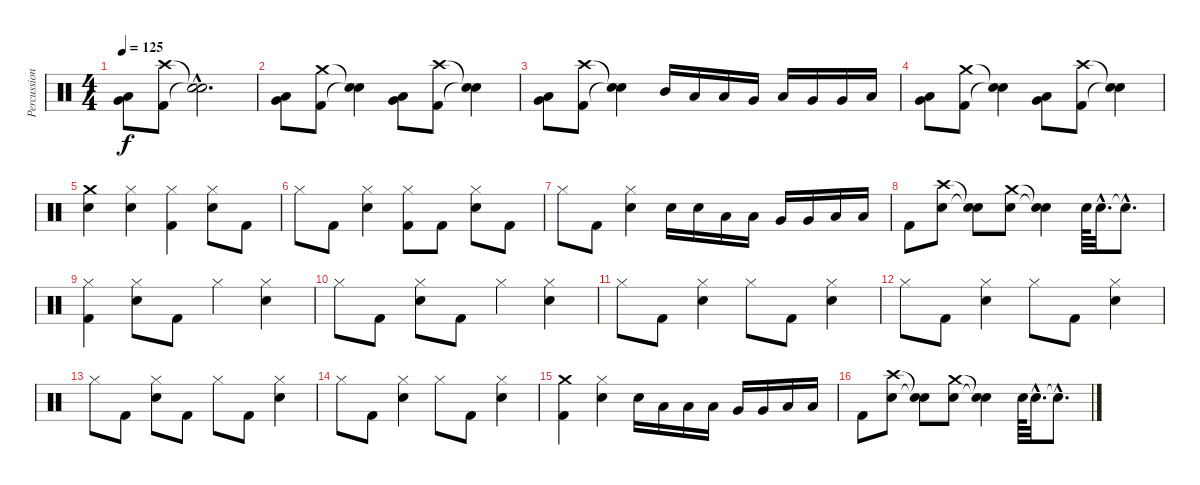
\track ("Percussion" "Percussion") {instrument percussion}
\staff {score}
\articulation defaults
\ts (4 4)
\tempo 125
\clef neutral
\ks c
("Low Tom (hit)" "Very Low Tom (hit)").8{dy f} ("Crash high (hit)" "Kick (hit) 2").8 ("Snare (hit)"{hac t} "Snare (hit)"{hac t}).2{d} |
("Low Tom (hit)" "Very Low Tom (hit)").8 ("Crash medium (hit)" "Kick (hit) 2").8 ("Snare (hit)"{t} "Snare (hit)"{t}).4 ("Very Low Tom (hit)" "Low Floor Tom (hit)").8 ("Crash high (hit)" "Kick (hit) 2").8 ("Snare (hit)"{t} "Snare (hit)"{t}).4 |
("Low Tom (hit)" "Very Low Tom (hit)").8 ("Crash high (hit)" "Kick (hit) 2").8 ("Snare (hit)"{t} "Snare (hit)"{t}).4 "Mid Tom (hit)".16 "Low Tom (hit)".16 "Low Tom (hit)".16 "Very Low Tom (hit)".16 "Low Tom (hit)".16 "Very Low Tom (hit)".16 "Very Low Tom (hit)".16 "Low Floor Tom (hit)".16 |
("Low Tom (hit)" "Very Low Tom (hit)").8 ("Crash medium (hit)" "Kick (hit) 2").8 ("Snare (hit)"{t} "Snare (hit)"{t}).4 ("Very Low Tom (hit)" "Low Floor Tom (hit)").8 ("Crash high (hit)" "Kick (hit) 2").8 ("Snare (hit)"{t} "Snare (hit)"{t}).4 |
("Crash medium (hit)" "Metronome (bell)").4 ("Hi-Hat (closed)" "Metronome (bell)").4 ("Hi-Hat (closed)" "Kick (hit) 2").4 ("Hi-Hat (closed)" "Metronome (bell)").8 "Kick (hit) 2".8 |
"Hi-Hat (closed)".8 "Kick (hit) 2".8 ("Hi-Hat (closed)" "Metronome (bell)").4 ("Hi-Hat (closed)" "Kick (hit) 2").8 "Kick (hit) 2".8 ("Hi-Hat (closed)" "Metronome (bell)").8 "Kick (hit) 2".8 |
"Hi-Hat (closed)".8 "Kick (hit) 2".8 ("Hi-Hat (closed)" "Metronome (bell)").4 "Electric Snare (hit)".16 "Electric Snare (hit)".16 "Low Tom (hit)".16 "Low Tom (hit)".16 "Very Low Tom (hit)".16 "Very Low Tom (hit)".16 "Low Floor Tom (hit)".16 "Low Floor Tom (hit)".16 |
"Kick (hit) 2".8 ("Crash high (hit)" "Metronome (bell)").8 ("Snare (hit)"{t} "Snare (hit)"{t}).8 ("Crash medium (hit)" "Metronome (bell)").8 ("Snare (hit)"{t} "Snare (hit)"{t}).4 "Metronome (bell)".64 "Metronome (bell)"{hac}.32{d} "Snare (hit)"{hac t}.8{d} |
("Hi-Hat (closed)" "Kick (hit) 2").4 ("Hi-Hat (closed)" "Metronome (bell)").8 "Kick (hit) 2".8 "Hi-Hat (closed)".4 ("Hi-Hat (closed)" "Metronome (bell)").4 |
"Hi-Hat (closed)".8 "Kick (hit) 2".8 ("Hi-Hat (closed)" "Metronome (bell)").8 "Kick (hit) 2".8 "Hi-Hat (closed)".4 ("Hi-Hat (closed)" "Metronome (bell)").4 |
"Hi-Hat (closed)".8 "Kick (hit) 2".8 ("Hi-Hat (closed)" "Metronome (bell)").4 "Hi-Hat (closed)".8 "Kick (hit) 2".8 ("Hi-Hat (closed)" "Metronome (bell)").4 |
"Hi-Hat (closed)".8 "Kick (hit) 2".8 ("Hi-Hat (closed)" "Metronome (bell)").4 "Hi-Hat (closed)".8 "Kick (hit) 2".8 ("Hi-Hat (closed)" "Metronome (bell)").4 |
"Hi-Hat (closed)".8 "Kick (hit) 2".8 ("Hi-Hat (closed)" "Metronome (bell)").8 "Kick (hit) 2".8 "Hi-Hat (closed)".8 "Kick (hit) 2".8 ("Hi-Hat (closed)" "Metronome (bell)").4 |
"Hi-Hat (closed)".8 "Kick (hit) 2".8 ("Hi-Hat (closed)" "Metronome (bell)").4 "Hi-Hat (closed)".8 "Kick (hit) 2".8 ("Hi-Hat (closed)" "Metronome (bell)").4 |
("Crash medium (hit)" "Kick (hit) 2").4 ("Hi-Hat (closed)" "Metronome (bell)").4 "Electric Snare (hit)".16 "Low Tom (hit)".16 "Low Tom (hit)".16 "Low Tom (hit)".16 "Very Low Tom (hit)".16 "Very Low Tom (hit)".16 "Low Floor Tom (hit)".16 "Low Floor Tom (hit)".16 |
"Kick (hit) 2".8 ("Crash high (hit)" "Metronome (bell)").8 ("Snare (hit)"{t} "Snare (hit)"{t}).8 ("Crash medium (hit)" "Metronome (bell)").8 ("Snare (hit)"{t} "Snare (hit)"{t}).4 "Metronome (bell)".64 "Metronome (bell)"{hac}.32{d} "Snare (hit)"{hac t}.8{d}
